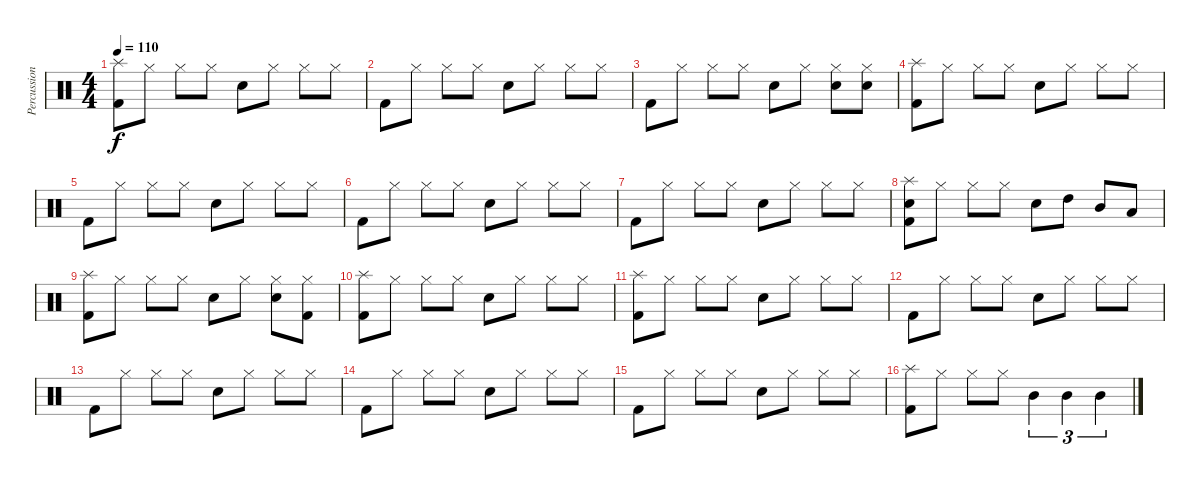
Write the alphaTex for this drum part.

\track ("Percussion" "Percussion") {instrument percussion}
\staff {score}
\articulation defaults
\ts (4 4)
\tempo 110
\clef neutral
\ks c
("Splash (hit)" "Kick (hit) 2").8{dy f} "Hi-Hat (closed)".8 "Hi-Hat (closed)".8 "Hi-Hat (closed)".8 "Snare (hit) 2".8 "Hi-Hat (closed)".8 "Hi-Hat (closed)".8 "Hi-Hat (closed)".8 |
"Kick (hit) 2".8 "Hi-Hat (closed)".8 "Hi-Hat (closed)".8 "Hi-Hat (closed)".8 "Snare (hit) 2".8 "Hi-Hat (closed)".8 "Hi-Hat (closed)".8 "Hi-Hat (closed)".8 |
"Kick (hit) 2".8 "Hi-Hat (closed)".8 "Hi-Hat (closed)".8 "Hi-Hat (closed)".8 "Snare (hit) 2".8 "Hi-Hat (closed)".8 ("Hi-Hat (closed)" "Snare (hit) 2").8 ("Hi-Hat (closed)" "Snare (hit) 2").8 |
("Splash (hit)" "Kick (hit) 2").8 "Hi-Hat (closed)".8 "Hi-Hat (closed)".8 "Hi-Hat (closed)".8 "Snare (hit) 2".8 "Hi-Hat (closed)".8 "Hi-Hat (closed)".8 "Hi-Hat (closed)".8 |
"Kick (hit) 2".8 "Hi-Hat (closed)".8 "Hi-Hat (closed)".8 "Hi-Hat (closed)".8 "Snare (hit) 2".8 "Hi-Hat (closed)".8 "Hi-Hat (closed)".8 "Hi-Hat (closed)".8 |
"Kick (hit) 2".8 "Hi-Hat (closed)".8 "Hi-Hat (closed)".8 "Hi-Hat (closed)".8 "Snare (hit) 2".8 "Hi-Hat (closed)".8 "Hi-Hat (closed)".8 "Hi-Hat (closed)".8 |
"Kick (hit) 2".8 "Hi-Hat (closed)".8 "Hi-Hat (closed)".8 "Hi-Hat (closed)".8 "Snare (hit) 2".8 "Hi-Hat (closed)".8 "Hi-Hat (closed)".8 "Hi-Hat (closed)".8 |
("Splash (hit)" "Snare (hit) 2" "Kick (hit) 2").8 "Hi-Hat (closed)".8 "Hi-Hat (closed)".8 "Hi-Hat (closed)".8 "Snare (hit) 2".8 "High Tom (hit)".8 "Mid Tom (hit)".8 "Low Tom (hit)".8 |
("Splash (hit)" "Kick (hit) 2").8 "Hi-Hat (closed)".8 "Hi-Hat (closed)".8 "Hi-Hat (closed)".8 "Snare (hit) 2".8 "Hi-Hat (closed)".8 ("Hi-Hat (closed)" "Snare (hit) 2").8 ("Hi-Hat (closed)" "Kick (hit) 2").8 |
("Splash (hit)" "Kick (hit) 2").8 "Hi-Hat (closed)".8 "Hi-Hat (closed)".8 "Hi-Hat (closed)".8 "Snare (hit) 2".8 "Hi-Hat (closed)".8 "Hi-Hat (closed)".8 "Hi-Hat (closed)".8 |
("Splash (hit)" "Kick (hit) 2").8 "Hi-Hat (closed)".8 "Hi-Hat (closed)".8 "Hi-Hat (closed)".8 "Snare (hit) 2".8 "Hi-Hat (closed)".8 "Hi-Hat (closed)".8 "Hi-Hat (closed)".8 |
"Kick (hit) 2".8 "Hi-Hat (closed)".8 "Hi-Hat (closed)".8 "Hi-Hat (closed)".8 "Snare (hit) 2".8 "Hi-Hat (closed)".8 "Hi-Hat (closed)".8 "Hi-Hat (closed)".8 |
"Kick (hit) 2".8 "Hi-Hat (closed)".8 "Hi-Hat (closed)".8 "Hi-Hat (closed)".8 "Snare (hit) 2".8 "Hi-Hat (closed)".8 "Hi-Hat (closed)".8 "Hi-Hat (closed)".8 |
"Kick (hit) 2".8 "Hi-Hat (closed)".8 "Hi-Hat (closed)".8 "Hi-Hat (closed)".8 "Snare (hit) 2".8 "Hi-Hat (closed)".8 "Hi-Hat (closed)".8 "Hi-Hat (closed)".8 |
"Kick (hit) 2".8 "Hi-Hat (closed)".8 "Hi-Hat (closed)".8 "Hi-Hat (closed)".8 "Snare (hit) 2".8 "Hi-Hat (closed)".8 "Hi-Hat (closed)".8 "Hi-Hat (closed)".8 |
("Splash (hit)" "Kick (hit) 2").8 "Hi-Hat (closed)".8 "Hi-Hat (closed)".8 "Hi-Hat (closed)".8 "Mid Tom (hit)".4{tu (3 2)} "Mid Tom (hit)".4{tu (3 2)} "Mid Tom (hit)".4{tu (3 2)}
